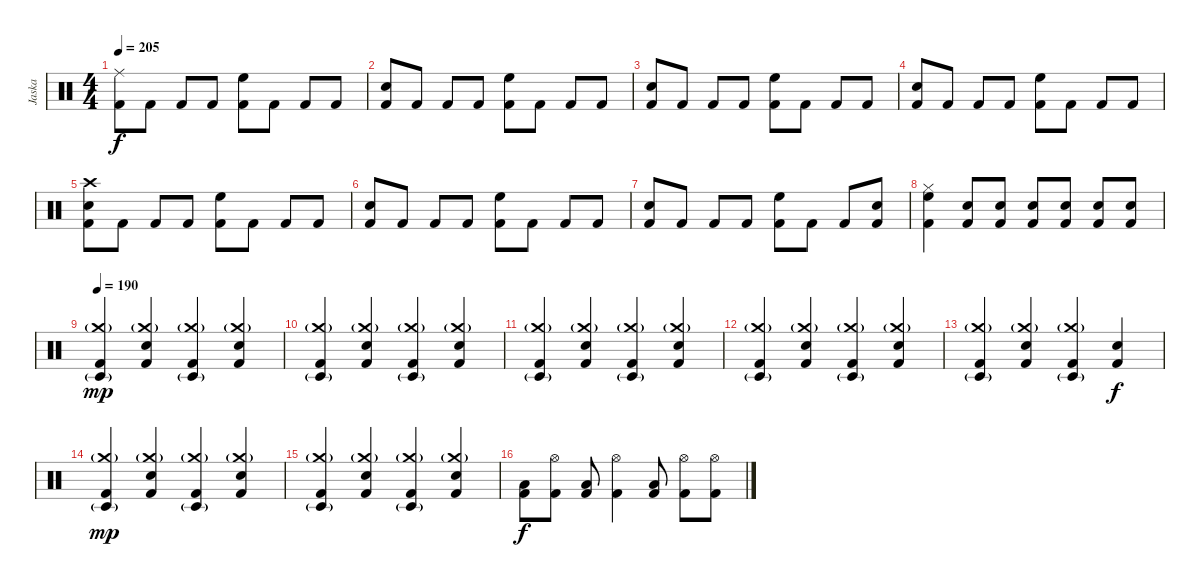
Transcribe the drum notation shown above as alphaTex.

\track ("Jaska" "Jaska") {instrument percussion}
\staff {score}
\articulation defaults
\ts (4 4)
\tempo 205
\clef neutral
\ks c
("Kick (hit) 2" "Ride (middle)").8{dy f} "Kick (hit) 2".8 "Kick (hit) 2".8 "Kick (hit) 2".8 ("Kick (hit) 2" "High Floor Tom (hit)").8 "Kick (hit) 2".8 "Kick (hit) 2".8 "Kick (hit) 2".8 |
("Kick (hit) 2" "Electric Snare (hit)").8 "Kick (hit) 2".8 "Kick (hit) 2".8 "Kick (hit) 2".8 ("Kick (hit) 2" "High Floor Tom (hit)").8 "Kick (hit) 2".8 "Kick (hit) 2".8 "Kick (hit) 2".8 |
("Kick (hit) 2" "Electric Snare (hit)").8 "Kick (hit) 2".8 "Kick (hit) 2".8 "Kick (hit) 2".8 ("Kick (hit) 2" "High Floor Tom (hit)").8 "Kick (hit) 2".8 "Kick (hit) 2".8 "Kick (hit) 2".8 |
("Kick (hit) 2" "Electric Snare (hit)").8 "Kick (hit) 2".8 "Kick (hit) 2".8 "Kick (hit) 2".8 ("Kick (hit) 2" "High Floor Tom (hit)").8 "Kick (hit) 2".8 "Kick (hit) 2".8 "Kick (hit) 2".8 |
("Kick (hit) 2" "Electric Snare (hit)" "Crash high (hit)").8 "Kick (hit) 2".8 "Kick (hit) 2".8 "Kick (hit) 2".8 ("Kick (hit) 2" "High Floor Tom (hit)").8 "Kick (hit) 2".8 "Kick (hit) 2".8 "Kick (hit) 2".8 |
("Kick (hit) 2" "Electric Snare (hit)").8 "Kick (hit) 2".8 "Kick (hit) 2".8 "Kick (hit) 2".8 ("Kick (hit) 2" "High Floor Tom (hit)").8 "Kick (hit) 2".8 "Kick (hit) 2".8 "Kick (hit) 2".8 |
("Kick (hit) 2" "Electric Snare (hit)").8 "Kick (hit) 2".8 "Kick (hit) 2".8 "Kick (hit) 2".8 ("Kick (hit) 2" "High Floor Tom (hit)").8 "Kick (hit) 2".8 "Kick (hit) 2".8 ("Kick (hit) 2" "Electric Snare (hit)").8 |
("Kick (hit) 2" "Hi-Hat (closed)" "High Floor Tom (hit)").4 ("Kick (hit) 2" "Electric Snare (hit)").8 ("Kick (hit) 2" "Electric Snare (hit)").8 ("Kick (hit) 2" "Electric Snare (hit)").8 ("Kick (hit) 2" "Electric Snare (hit)").8 ("Kick (hit) 2" "Electric Snare (hit)").8 ("Kick (hit) 2" "Electric Snare (hit)").8 |
\tempo 190
("Kick (hit) 2" "Crash medium (hit)"{g} "Timbale low (hit)"{g}).4{dy mp} ("Kick (hit) 2" "Crash medium (hit)"{g} "Snare (hit) 2").4 ("Kick (hit) 2" "Crash medium (hit)"{g} "Timbale low (hit)"{g}).4 ("Kick (hit) 2" "Crash medium (hit)"{g} "Snare (hit) 2").4 |
("Kick (hit) 2" "Crash medium (hit)"{g} "Timbale low (hit)"{g}).4 ("Kick (hit) 2" "Crash medium (hit)"{g} "Snare (hit) 2").4 ("Kick (hit) 2" "Crash medium (hit)"{g} "Timbale low (hit)"{g}).4 ("Kick (hit) 2" "Crash medium (hit)"{g} "Snare (hit) 2").4 |
("Kick (hit) 2" "Crash medium (hit)"{g} "Timbale low (hit)"{g}).4 ("Kick (hit) 2" "Crash medium (hit)"{g} "Snare (hit) 2").4 ("Kick (hit) 2" "Crash medium (hit)"{g} "Timbale low (hit)"{g}).4 ("Kick (hit) 2" "Crash medium (hit)"{g} "Snare (hit) 2").4 |
("Kick (hit) 2" "Crash medium (hit)"{g} "Timbale low (hit)"{g}).4 ("Kick (hit) 2" "Crash medium (hit)"{g} "Snare (hit) 2").4 ("Kick (hit) 2" "Crash medium (hit)"{g} "Timbale low (hit)"{g}).4 ("Kick (hit) 2" "Crash medium (hit)"{g} "Snare (hit) 2").4 |
("Kick (hit) 2" "Crash medium (hit)"{g} "Timbale low (hit)"{g}).4 ("Kick (hit) 2" "Crash medium (hit)"{g} "Snare (hit) 2").4 ("Kick (hit) 2" "Crash medium (hit)"{g} "Timbale low (hit)"{g}).4 ("Kick (hit) 2" "Snare (hit) 2").4{dy f} |
("Kick (hit) 2" "Crash medium (hit)"{g} "Timbale low (hit)"{g}).4{dy mp} ("Kick (hit) 2" "Crash medium (hit)"{g} "Snare (hit) 2").4 ("Kick (hit) 2" "Crash medium (hit)"{g} "Timbale low (hit)"{g}).4 ("Kick (hit) 2" "Crash medium (hit)"{g} "Snare (hit) 2").4 |
("Kick (hit) 2" "Crash medium (hit)"{g} "Timbale low (hit)"{g}).4 ("Kick (hit) 2" "Crash medium (hit)"{g} "Snare (hit) 2").4 ("Kick (hit) 2" "Crash medium (hit)"{g} "Timbale low (hit)"{g}).4 ("Kick (hit) 2" "Crash medium (hit)"{g} "Snare (hit) 2").4 |
("Kick (hit) 2" "Low Tom (hit)").8{dy f} ("Kick (hit) 2" "Hi-Hat (open)").8 ("Kick (hit) 2" "Low Tom (hit)").8 ("Kick (hit) 2" "Hi-Hat (open)").4 ("Kick (hit) 2" "Low Tom (hit)").8 ("Kick (hit) 2" "Hi-Hat (open)").8 ("Kick (hit) 2" "Hi-Hat (open)").8
